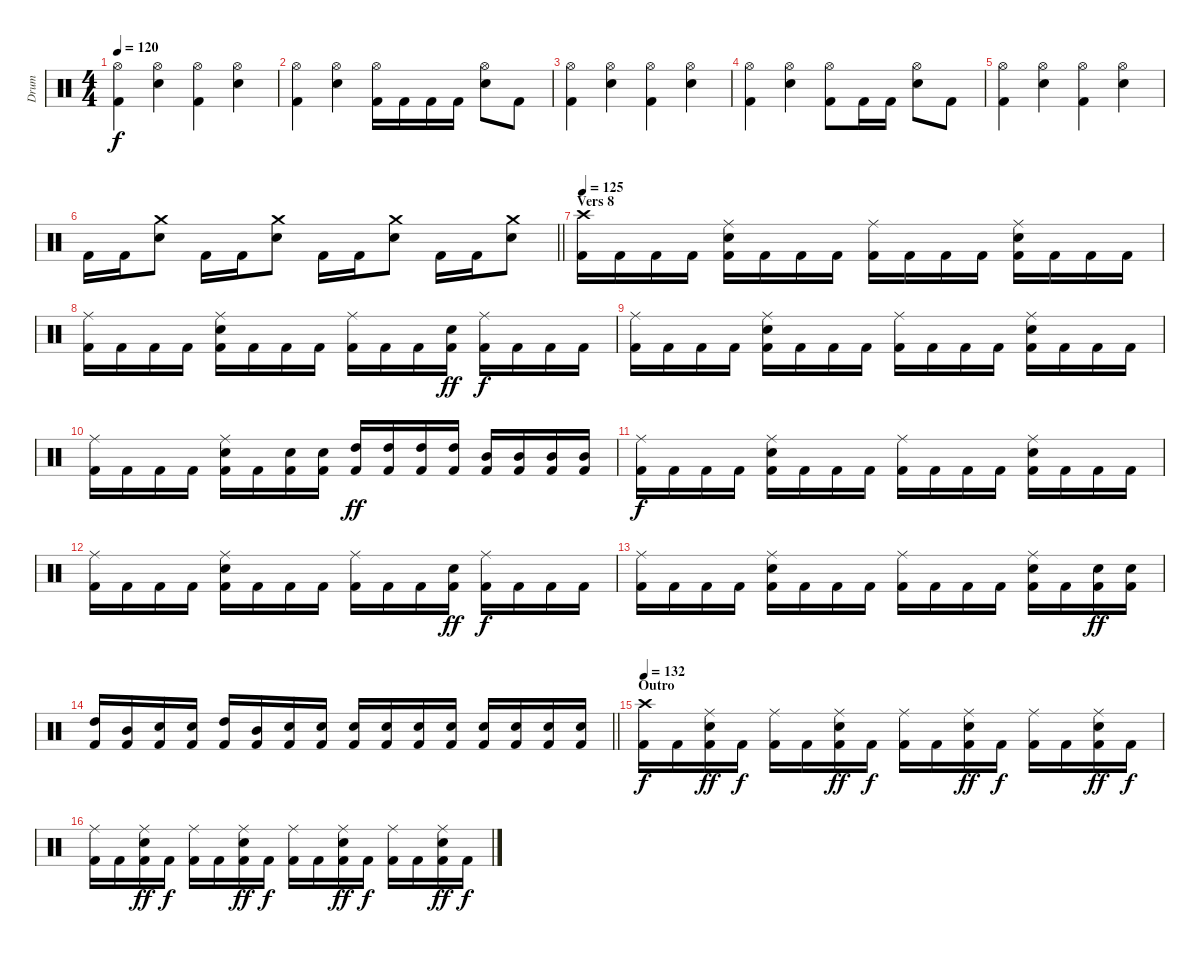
\track ("Drum" "Drum") {instrument percussion}
\staff {score}
\articulation defaults
\ts (4 4)
\tempo 120
\clef neutral
\ks c
("Hi-Hat (open)" "Kick (hit) 2").4{dy f} ("Hi-Hat (open)" "Electric Snare (hit)").4 ("Hi-Hat (open)" "Kick (hit) 2").4 ("Hi-Hat (open)" "Electric Snare (hit)").4 |
("Hi-Hat (open)" "Kick (hit) 2").4 ("Hi-Hat (open)" "Electric Snare (hit)").4 ("Hi-Hat (open)" "Kick (hit) 2").16 "Kick (hit) 2".16 "Kick (hit) 2".16 "Kick (hit) 2".16 ("Hi-Hat (open)" "Electric Snare (hit)").8 "Kick (hit) 2".8 |
("Hi-Hat (open)" "Kick (hit) 2").4 ("Hi-Hat (open)" "Electric Snare (hit)").4 ("Hi-Hat (open)" "Kick (hit) 2").4 ("Hi-Hat (open)" "Electric Snare (hit)").4 |
("Hi-Hat (open)" "Kick (hit) 2").4 ("Hi-Hat (open)" "Electric Snare (hit)").4 ("Hi-Hat (open)" "Kick (hit) 2").8 "Kick (hit) 2".16 "Kick (hit) 2".16 ("Hi-Hat (open)" "Electric Snare (hit)").8 "Kick (hit) 2".8 |
("Hi-Hat (open)" "Kick (hit) 2").4 ("Hi-Hat (open)" "Electric Snare (hit)").4 ("Hi-Hat (open)" "Kick (hit) 2").4 ("Hi-Hat (open)" "Electric Snare (hit)").4 |
\barLineRight lightlight "Kick (hit) 2".16 "Kick (hit) 2".16
("Crash medium (hit)" "Electric Snare (hit)").8 "Kick (hit) 2".16 "Kick (hit) 2".16 ("Crash medium (hit)" "Electric Snare (hit)").8 "Kick (hit) 2".16 "Kick (hit) 2".16 ("Crash medium (hit)" "Electric Snare (hit)").8 "Kick (hit) 2".16 "Kick (hit) 2".16 ("Crash medium (hit)" "Electric Snare (hit)").8 |
\section ("" "Vers 8")
\tempo 125
("Crash high (hit)" "Kick (hit) 2").16 "Kick (hit) 2".16 "Kick (hit) 2".16 "Kick (hit) 2".16 ("Ride (middle)" "Electric Snare (hit)" "Kick (hit) 2").16 "Kick (hit) 2".16 "Kick (hit) 2".16 "Kick (hit) 2".16 ("Ride (middle)" "Kick (hit) 2").16 "Kick (hit) 2".16 "Kick (hit) 2".16 "Kick (hit) 2".16 ("Ride (middle)" "Electric Snare (hit)" "Kick (hit) 2").16 "Kick (hit) 2".16 "Kick (hit) 2".16 "Kick (hit) 2".16 |
("Ride (middle)" "Kick (hit) 2").16 "Kick (hit) 2".16 "Kick (hit) 2".16 "Kick (hit) 2".16 ("Ride (middle)" "Electric Snare (hit)" "Kick (hit) 2").16 "Kick (hit) 2".16 "Kick (hit) 2".16 "Kick (hit) 2".16 ("Ride (middle)" "Kick (hit) 2").16 "Kick (hit) 2".16 "Kick (hit) 2".16 ("Electric Snare (hit)" "Kick (hit) 2").16{dy ff} ("Ride (middle)" "Kick (hit) 2").16{dy f} "Kick (hit) 2".16 "Kick (hit) 2".16 "Kick (hit) 2".16 |
("Ride (middle)" "Kick (hit) 2").16 "Kick (hit) 2".16 "Kick (hit) 2".16 "Kick (hit) 2".16 ("Ride (middle)" "Electric Snare (hit)" "Kick (hit) 2").16 "Kick (hit) 2".16 "Kick (hit) 2".16 "Kick (hit) 2".16 ("Ride (middle)" "Kick (hit) 2").16 "Kick (hit) 2".16 "Kick (hit) 2".16 "Kick (hit) 2".16 ("Ride (middle)" "Electric Snare (hit)" "Kick (hit) 2").16 "Kick (hit) 2".16 "Kick (hit) 2".16 "Kick (hit) 2".16 |
("Ride (middle)" "Kick (hit) 2").16 "Kick (hit) 2".16 "Kick (hit) 2".16 "Kick (hit) 2".16 ("Ride (middle)" "Electric Snare (hit)" "Kick (hit) 2").16 "Kick (hit) 2".16 ("Electric Snare (hit)" "Kick (hit) 2").16 ("Electric Snare (hit)" "Kick (hit) 2").16 ("High Tom (hit)" "Kick (hit) 2").16{dy ff} ("High Tom (hit)" "Kick (hit) 2").16 ("High Tom (hit)" "Kick (hit) 2").16 ("High Tom (hit)" "Kick (hit) 2").16 ("Mid Tom (hit)" "Kick (hit) 2").16 ("Mid Tom (hit)" "Kick (hit) 2").16 ("Mid Tom (hit)" "Kick (hit) 2").16 ("Mid Tom (hit)" "Kick (hit) 2").16 |
("Ride (middle)" "Kick (hit) 2").16{dy f} "Kick (hit) 2".16 "Kick (hit) 2".16 "Kick (hit) 2".16 ("Ride (middle)" "Electric Snare (hit)" "Kick (hit) 2").16 "Kick (hit) 2".16 "Kick (hit) 2".16 "Kick (hit) 2".16 ("Ride (middle)" "Kick (hit) 2").16 "Kick (hit) 2".16 "Kick (hit) 2".16 "Kick (hit) 2".16 ("Ride (middle)" "Electric Snare (hit)" "Kick (hit) 2").16 "Kick (hit) 2".16 "Kick (hit) 2".16 "Kick (hit) 2".16 |
("Ride (middle)" "Kick (hit) 2").16 "Kick (hit) 2".16 "Kick (hit) 2".16 "Kick (hit) 2".16 ("Ride (middle)" "Electric Snare (hit)" "Kick (hit) 2").16 "Kick (hit) 2".16 "Kick (hit) 2".16 "Kick (hit) 2".16 ("Ride (middle)" "Kick (hit) 2").16 "Kick (hit) 2".16 "Kick (hit) 2".16 ("Electric Snare (hit)" "Kick (hit) 2").16{dy ff} ("Ride (middle)" "Kick (hit) 2").16{dy f} "Kick (hit) 2".16 "Kick (hit) 2".16 "Kick (hit) 2".16 |
("Ride (middle)" "Kick (hit) 2").16 "Kick (hit) 2".16 "Kick (hit) 2".16 "Kick (hit) 2".16 ("Ride (middle)" "Electric Snare (hit)" "Kick (hit) 2").16 "Kick (hit) 2".16 "Kick (hit) 2".16 "Kick (hit) 2".16 ("Ride (middle)" "Kick (hit) 2").16 "Kick (hit) 2".16 "Kick (hit) 2".16 "Kick (hit) 2".16 ("Ride (middle)" "Electric Snare (hit)" "Kick (hit) 2").16 "Kick (hit) 2".16 ("Electric Snare (hit)" "Kick (hit) 2").16{dy ff} ("Electric Snare (hit)" "Kick (hit) 2").16 |
\barLineRight lightlight
("High Tom (hit)" "Kick (hit) 2").16 ("Mid Tom (hit)" "Kick (hit) 2").16 ("Electric Snare (hit)" "Kick (hit) 2").16 ("Electric Snare (hit)" "Kick (hit) 2").16 ("High Tom (hit)" "Kick (hit) 2").16 ("Mid Tom (hit)" "Kick (hit) 2").16 ("Electric Snare (hit)" "Kick (hit) 2").16 ("Electric Snare (hit)" "Kick (hit) 2").16 ("Electric Snare (hit)" "Kick (hit) 2").16 ("Electric Snare (hit)" "Kick (hit) 2").16 ("Electric Snare (hit)" "Kick (hit) 2").16 ("Electric Snare (hit)" "Kick (hit) 2").16 ("Electric Snare (hit)" "Kick (hit) 2").16 ("Electric Snare (hit)" "Kick (hit) 2").16 ("Electric Snare (hit)" "Kick (hit) 2").16 ("Electric Snare (hit)" "Kick (hit) 2").16 |
\section ("" "Outro")
\tempo 132
("Crash high (hit)" "Kick (hit) 2").16{dy f} "Kick (hit) 2".16 ("Ride (middle)" "Electric Snare (hit)" "Kick (hit) 2").16{dy ff} "Kick (hit) 2".16{dy f} ("Ride (middle)" "Kick (hit) 2").16 "Kick (hit) 2".16 ("Ride (middle)" "Electric Snare (hit)" "Kick (hit) 2").16{dy ff} "Kick (hit) 2".16{dy f} ("Ride (middle)" "Kick (hit) 2").16 "Kick (hit) 2".16 ("Ride (middle)" "Electric Snare (hit)" "Kick (hit) 2").16{dy ff} "Kick (hit) 2".16{dy f} ("Ride (middle)" "Kick (hit) 2").16 "Kick (hit) 2".16 ("Ride (middle)" "Electric Snare (hit)" "Kick (hit) 2").16{dy ff} "Kick (hit) 2".16{dy f} |
("Ride (middle)" "Kick (hit) 2").16 "Kick (hit) 2".16 ("Ride (middle)" "Electric Snare (hit)" "Kick (hit) 2").16{dy ff} "Kick (hit) 2".16{dy f} ("Ride (middle)" "Kick (hit) 2").16 "Kick (hit) 2".16 ("Ride (middle)" "Electric Snare (hit)" "Kick (hit) 2").16{dy ff} "Kick (hit) 2".16{dy f} ("Ride (middle)" "Kick (hit) 2").16 "Kick (hit) 2".16 ("Ride (middle)" "Electric Snare (hit)" "Kick (hit) 2").16{dy ff} "Kick (hit) 2".16{dy f} ("Ride (middle)" "Kick (hit) 2").16 "Kick (hit) 2".16 ("Ride (middle)" "Electric Snare (hit)" "Kick (hit) 2").16{dy ff} "Kick (hit) 2".16{dy f}
